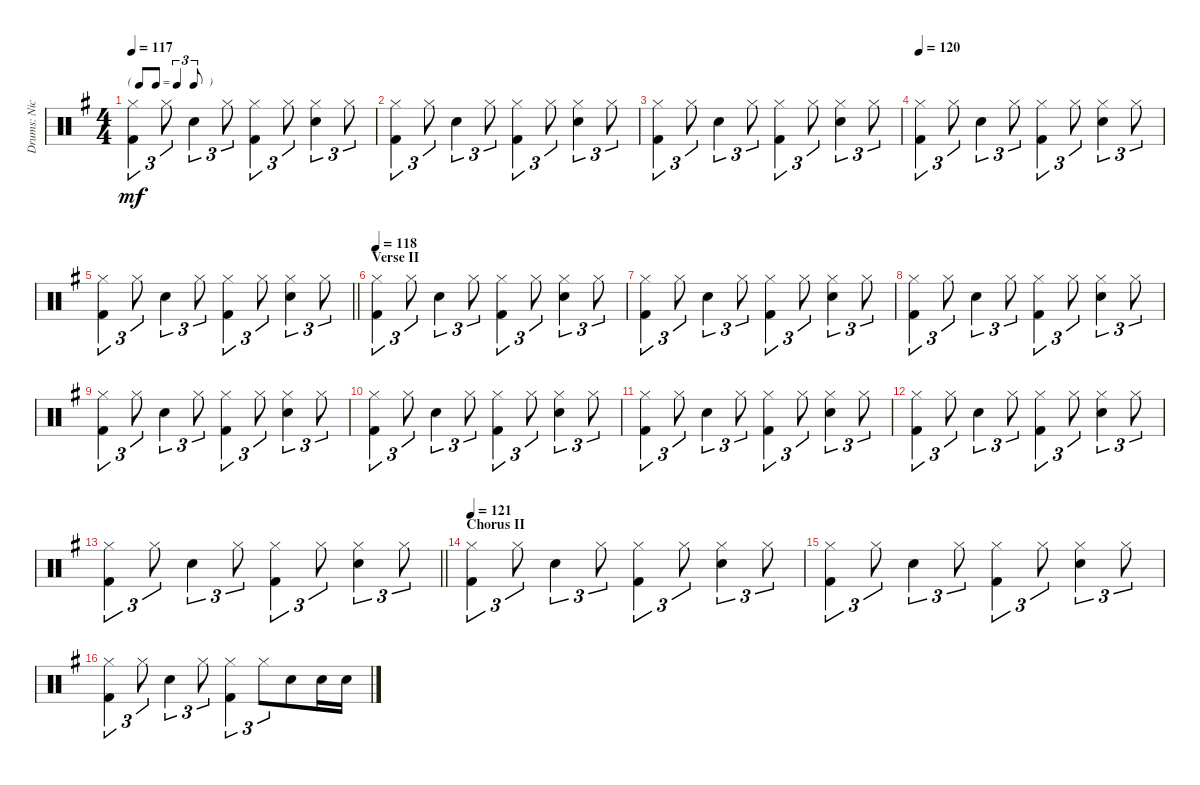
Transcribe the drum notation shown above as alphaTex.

\track ("Drums: Nick" "Drums: Nic") {instrument percussion}
\staff {score}
\articulation defaults
\ts (4 4)
\tf triplet8th
\tempo 117
\clef neutral
\ks g
("Hi-Hat (closed)" "Kick (hit) 2").4{tu (3 2) dy mf} "Hi-Hat (closed)".8{tu (3 2)} "Electric Snare (hit)".4{tu (3 2)} "Hi-Hat (closed)".8{tu (3 2)} ("Hi-Hat (closed)" "Kick (hit) 2").4{tu (3 2)} "Hi-Hat (closed)".8{tu (3 2)} ("Hi-Hat (closed)" "Electric Snare (hit)").4{tu (3 2)} "Hi-Hat (closed)".8{tu (3 2)} |
("Hi-Hat (closed)" "Kick (hit) 2").4{tu (3 2)} "Hi-Hat (closed)".8{tu (3 2)} "Electric Snare (hit)".4{tu (3 2)} "Hi-Hat (closed)".8{tu (3 2)} ("Hi-Hat (closed)" "Kick (hit) 2").4{tu (3 2)} "Hi-Hat (closed)".8{tu (3 2)} ("Hi-Hat (closed)" "Electric Snare (hit)").4{tu (3 2)} "Hi-Hat (closed)".8{tu (3 2)} |
("Hi-Hat (closed)" "Kick (hit) 2").4{tu (3 2)} "Hi-Hat (closed)".8{tu (3 2)} "Electric Snare (hit)".4{tu (3 2)} "Hi-Hat (closed)".8{tu (3 2)} ("Hi-Hat (closed)" "Kick (hit) 2").4{tu (3 2)} "Hi-Hat (closed)".8{tu (3 2)} ("Hi-Hat (closed)" "Electric Snare (hit)").4{tu (3 2)} "Hi-Hat (closed)".8{tu (3 2)} |
\tempo 120
("Hi-Hat (closed)" "Kick (hit) 2").4{tu (3 2)} "Hi-Hat (closed)".8{tu (3 2)} "Electric Snare (hit)".4{tu (3 2)} "Hi-Hat (closed)".8{tu (3 2)} ("Hi-Hat (closed)" "Kick (hit) 2").4{tu (3 2)} "Hi-Hat (closed)".8{tu (3 2)} ("Hi-Hat (closed)" "Electric Snare (hit)").4{tu (3 2)} "Hi-Hat (closed)".8{tu (3 2)} |
\barLineRight lightlight
("Hi-Hat (closed)" "Kick (hit) 2").4{tu (3 2)} "Hi-Hat (closed)".8{tu (3 2)} "Electric Snare (hit)".4{tu (3 2)} "Hi-Hat (closed)".8{tu (3 2)} ("Hi-Hat (closed)" "Kick (hit) 2").4{tu (3 2)} "Hi-Hat (closed)".8{tu (3 2)} ("Hi-Hat (closed)" "Electric Snare (hit)").4{tu (3 2)} "Hi-Hat (closed)".8{tu (3 2)} |
\section ("" "Verse II")
\tempo 118
("Hi-Hat (closed)" "Kick (hit) 2").4{tu (3 2)} "Hi-Hat (closed)".8{tu (3 2)} "Electric Snare (hit)".4{tu (3 2)} "Hi-Hat (closed)".8{tu (3 2)} ("Hi-Hat (closed)" "Kick (hit) 2").4{tu (3 2)} "Hi-Hat (closed)".8{tu (3 2)} ("Hi-Hat (closed)" "Electric Snare (hit)").4{tu (3 2)} "Hi-Hat (closed)".8{tu (3 2)} |
("Hi-Hat (closed)" "Kick (hit) 2").4{tu (3 2)} "Hi-Hat (closed)".8{tu (3 2)} "Electric Snare (hit)".4{tu (3 2)} "Hi-Hat (closed)".8{tu (3 2)} ("Hi-Hat (closed)" "Kick (hit) 2").4{tu (3 2)} "Hi-Hat (closed)".8{tu (3 2)} ("Hi-Hat (closed)" "Electric Snare (hit)").4{tu (3 2)} "Hi-Hat (closed)".8{tu (3 2)} |
("Hi-Hat (closed)" "Kick (hit) 2").4{tu (3 2)} "Hi-Hat (closed)".8{tu (3 2)} "Electric Snare (hit)".4{tu (3 2)} "Hi-Hat (closed)".8{tu (3 2)} ("Hi-Hat (closed)" "Kick (hit) 2").4{tu (3 2)} "Hi-Hat (closed)".8{tu (3 2)} ("Hi-Hat (closed)" "Electric Snare (hit)").4{tu (3 2)} "Hi-Hat (closed)".8{tu (3 2)} |
("Hi-Hat (closed)" "Kick (hit) 2").4{tu (3 2)} "Hi-Hat (closed)".8{tu (3 2)} "Electric Snare (hit)".4{tu (3 2)} "Hi-Hat (closed)".8{tu (3 2)} ("Hi-Hat (closed)" "Kick (hit) 2").4{tu (3 2)} "Hi-Hat (closed)".8{tu (3 2)} ("Hi-Hat (closed)" "Electric Snare (hit)").4{tu (3 2)} "Hi-Hat (closed)".8{tu (3 2)} |
("Hi-Hat (closed)" "Kick (hit) 2").4{tu (3 2)} "Hi-Hat (closed)".8{tu (3 2)} "Electric Snare (hit)".4{tu (3 2)} "Hi-Hat (closed)".8{tu (3 2)} ("Hi-Hat (closed)" "Kick (hit) 2").4{tu (3 2)} "Hi-Hat (closed)".8{tu (3 2)} ("Hi-Hat (closed)" "Electric Snare (hit)").4{tu (3 2)} "Hi-Hat (closed)".8{tu (3 2)} |
("Hi-Hat (closed)" "Kick (hit) 2").4{tu (3 2)} "Hi-Hat (closed)".8{tu (3 2)} "Electric Snare (hit)".4{tu (3 2)} "Hi-Hat (closed)".8{tu (3 2)} ("Hi-Hat (closed)" "Kick (hit) 2").4{tu (3 2)} "Hi-Hat (closed)".8{tu (3 2)} ("Hi-Hat (closed)" "Electric Snare (hit)").4{tu (3 2)} "Hi-Hat (closed)".8{tu (3 2)} |
("Hi-Hat (closed)" "Kick (hit) 2").4{tu (3 2)} "Hi-Hat (closed)".8{tu (3 2)} "Electric Snare (hit)".4{tu (3 2)} "Hi-Hat (closed)".8{tu (3 2)} ("Hi-Hat (closed)" "Kick (hit) 2").4{tu (3 2)} "Hi-Hat (closed)".8{tu (3 2)} ("Hi-Hat (closed)" "Electric Snare (hit)").4{tu (3 2)} "Hi-Hat (closed)".8{tu (3 2)} |
\barLineRight lightlight
("Hi-Hat (closed)" "Kick (hit) 2").4{tu (3 2)} "Hi-Hat (closed)".8{tu (3 2)} "Electric Snare (hit)".4{tu (3 2)} "Hi-Hat (closed)".8{tu (3 2)} ("Hi-Hat (closed)" "Kick (hit) 2").4{tu (3 2)} "Hi-Hat (closed)".8{tu (3 2)} ("Hi-Hat (closed)" "Electric Snare (hit)").4{tu (3 2)} "Hi-Hat (closed)".8{tu (3 2)} |
\section ("" "Chorus II")
\tempo 121
("Hi-Hat (closed)" "Kick (hit) 2").4{tu (3 2)} "Hi-Hat (closed)".8{tu (3 2)} "Electric Snare (hit)".4{tu (3 2)} "Hi-Hat (closed)".8{tu (3 2)} ("Hi-Hat (closed)" "Kick (hit) 2").4{tu (3 2)} "Hi-Hat (closed)".8{tu (3 2)} ("Hi-Hat (closed)" "Electric Snare (hit)").4{tu (3 2)} "Hi-Hat (closed)".8{tu (3 2)} |
("Hi-Hat (closed)" "Kick (hit) 2").4{tu (3 2)} "Hi-Hat (closed)".8{tu (3 2)} "Electric Snare (hit)".4{tu (3 2)} "Hi-Hat (closed)".8{tu (3 2)} ("Hi-Hat (closed)" "Kick (hit) 2").4{tu (3 2)} "Hi-Hat (closed)".8{tu (3 2)} ("Hi-Hat (closed)" "Electric Snare (hit)").4{tu (3 2)} "Hi-Hat (closed)".8{tu (3 2)} |
("Hi-Hat (closed)" "Kick (hit) 2").4{tu (3 2)} "Hi-Hat (closed)".8{tu (3 2)} "Electric Snare (hit)".4{tu (3 2)} "Hi-Hat (closed)".8{tu (3 2)} ("Hi-Hat (closed)" "Kick (hit) 2").4{tu (3 2)} "Hi-Hat (closed)".8{tu (3 2) beam merge} "Electric Snare (hit)".8 "Electric Snare (hit)".16 "Electric Snare (hit)".16
